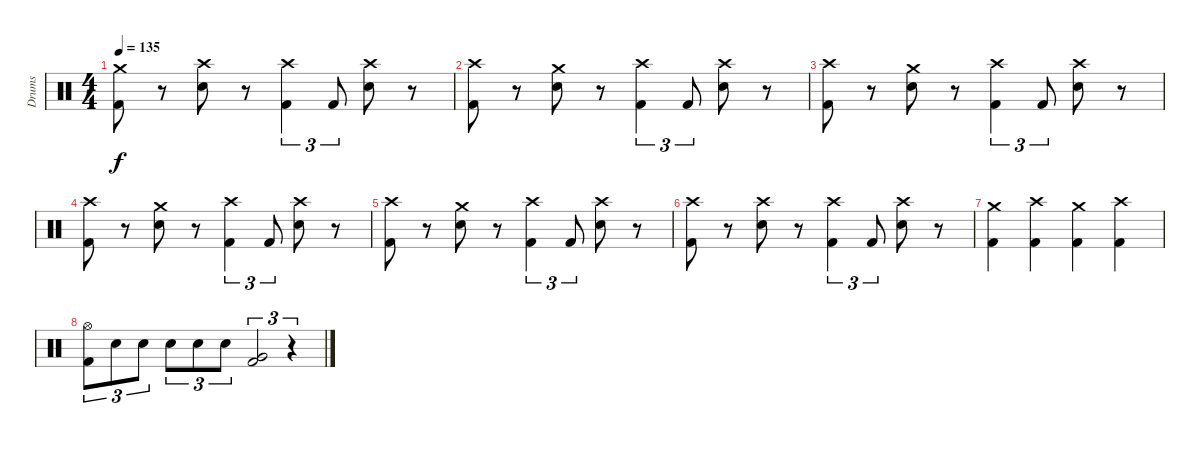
\track ("Drums" "Drums") {instrument percussion}
\staff {score}
\articulation defaults
\ts (4 4)
\tempo 135
\clef neutral
\ks c
("Crash medium (hit)" "Kick (hit) 2").8{dy f} r.8 ("Crash high (hit)" "Electric Snare (hit)").8 r.8 ("Crash high (hit)" "Kick (hit) 2").4{tu (3 2)} "Kick (hit) 2".8{tu (3 2)} ("Crash high (hit)" "Electric Snare (hit)").8 r.8 |
("Crash high (hit)" "Kick (hit) 2").8 r.8 ("Crash medium (hit)" "Electric Snare (hit)").8 r.8 ("Crash high (hit)" "Kick (hit) 2").4{tu (3 2)} "Kick (hit) 2".8{tu (3 2)} ("Crash high (hit)" "Electric Snare (hit)").8 r.8 |
("Crash high (hit)" "Kick (hit) 2").8 r.8 ("Crash medium (hit)" "Electric Snare (hit)").8 r.8 ("Crash high (hit)" "Kick (hit) 2").4{tu (3 2)} "Kick (hit) 2".8{tu (3 2)} ("Crash high (hit)" "Electric Snare (hit)").8 r.8 |
("Crash high (hit)" "Kick (hit) 2").8 r.8 ("Crash medium (hit)" "Electric Snare (hit)").8 r.8 ("Crash high (hit)" "Kick (hit) 2").4{tu (3 2)} "Kick (hit) 2".8{tu (3 2)} ("Crash high (hit)" "Electric Snare (hit)").8 r.8 |
("Crash high (hit)" "Kick (hit) 2").8 r.8 ("Crash medium (hit)" "Electric Snare (hit)").8 r.8 ("Crash high (hit)" "Kick (hit) 2").4{tu (3 2)} "Kick (hit) 2".8{tu (3 2)} ("Crash high (hit)" "Electric Snare (hit)").8 r.8 |
("Crash high (hit)" "Kick (hit) 2").8 r.8 ("Crash high (hit)" "Electric Snare (hit)").8 r.8 ("Crash high (hit)" "Kick (hit) 2").4{tu (3 2)} "Kick (hit) 2".8{tu (3 2)} ("Crash high (hit)" "Electric Snare (hit)").8 r.8 |
("Crash medium (hit)" "Kick (hit) 2").4 ("Crash high (hit)" "Kick (hit) 2").4 ("Crash medium (hit)" "Kick (hit) 2").4 ("Crash high (hit)" "Kick (hit) 2").4 |
("Hi-Hat (open)" "Kick (hit) 2").8{tu (3 2)} "Electric Snare (hit)".8{tu (3 2)} "Electric Snare (hit)".8{tu (3 2)} "Electric Snare (hit)".8{tu (3 2)} "Electric Snare (hit)".8{tu (3 2)} "Electric Snare (hit)".8{tu (3 2)} ("Very Low Tom (hit)" "Kick (hit) 2").2{tu (3 2)} r.4{tu (3 2)}
